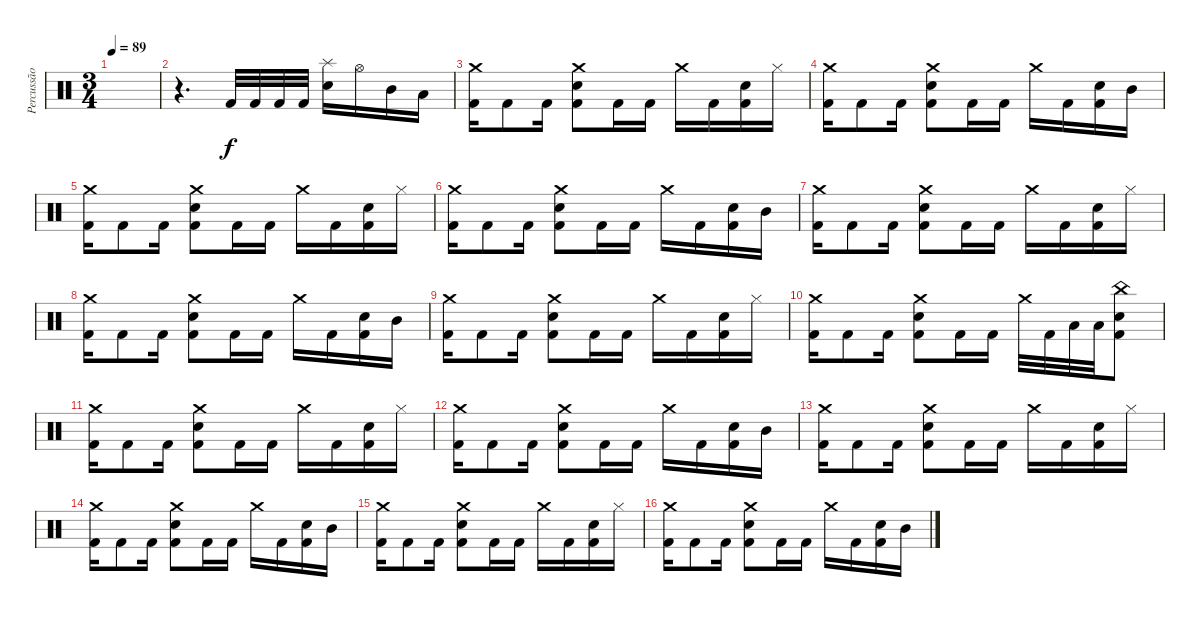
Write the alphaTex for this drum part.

\track ("Percussão" "Percussão") {instrument percussion}
\staff {score}
\articulation defaults
\ts (3 4)
\tempo 89
\clef neutral
\ks c
|
r.4{d} "Kick (hit) 2".32 "Kick (hit) 2".32 "Kick (hit) 2".32 "Kick (hit) 2".32 ("Splash (hit)" "Snare (hit) 2").16 "Hi-Hat (open)".16 "Mid Tom (hit)".16 "Low Tom (hit)".16 |
("Crash medium (hit)" "Kick (hit) 2").16 "Kick (hit) 2".8 "Kick (hit) 2".16 ("Crash medium (hit)" "Snare (hit) 2" "Kick (hit) 2").8 "Kick (hit) 2".16 "Kick (hit) 2".16 "Crash medium (hit)".16 "Kick (hit) 2".16 ("Snare (hit) 2" "Kick (hit) 2").16 "Hi-Hat (closed)".16 |
("Crash medium (hit)" "Kick (hit) 2").16 "Kick (hit) 2".8 "Kick (hit) 2".16 ("Crash medium (hit)" "Snare (hit) 2" "Kick (hit) 2").8 "Kick (hit) 2".16 "Kick (hit) 2".16 "Crash medium (hit)".16 "Kick (hit) 2".16 ("Snare (hit) 2" "Kick (hit) 2").16 "Mid Tom (hit)".16 |
("Crash medium (hit)" "Kick (hit) 2").16 "Kick (hit) 2".8 "Kick (hit) 2".16 ("Crash medium (hit)" "Snare (hit) 2" "Kick (hit) 2").8 "Kick (hit) 2".16 "Kick (hit) 2".16 "Crash medium (hit)".16 "Kick (hit) 2".16 ("Snare (hit) 2" "Kick (hit) 2").16 "Hi-Hat (closed)".16 |
("Crash medium (hit)" "Kick (hit) 2").16 "Kick (hit) 2".8 "Kick (hit) 2".16 ("Crash medium (hit)" "Snare (hit) 2" "Kick (hit) 2").8 "Kick (hit) 2".16 "Kick (hit) 2".16 "Crash medium (hit)".16 "Kick (hit) 2".16 ("Snare (hit) 2" "Kick (hit) 2").16 "Mid Tom (hit)".16 |
("Crash medium (hit)" "Kick (hit) 2").16 "Kick (hit) 2".8 "Kick (hit) 2".16 ("Crash medium (hit)" "Snare (hit) 2" "Kick (hit) 2").8 "Kick (hit) 2".16 "Kick (hit) 2".16 "Crash medium (hit)".16 "Kick (hit) 2".16 ("Snare (hit) 2" "Kick (hit) 2").16 "Hi-Hat (closed)".16 |
("Crash medium (hit)" "Kick (hit) 2").16 "Kick (hit) 2".8 "Kick (hit) 2".16 ("Crash medium (hit)" "Snare (hit) 2" "Kick (hit) 2").8 "Kick (hit) 2".16 "Kick (hit) 2".16 "Crash medium (hit)".16 "Kick (hit) 2".16 ("Snare (hit) 2" "Kick (hit) 2").16 "Mid Tom (hit)".16 |
("Crash medium (hit)" "Kick (hit) 2").16 "Kick (hit) 2".8 "Kick (hit) 2".16 ("Crash medium (hit)" "Snare (hit) 2" "Kick (hit) 2").8 "Kick (hit) 2".16 "Kick (hit) 2".16 "Crash medium (hit)".16 "Kick (hit) 2".16 ("Snare (hit) 2" "Kick (hit) 2").16 "Hi-Hat (closed)".16 |
("Crash medium (hit)" "Kick (hit) 2").16 "Kick (hit) 2".8 "Kick (hit) 2".16 ("Crash medium (hit)" "Snare (hit) 2" "Kick (hit) 2").8 "Kick (hit) 2".16 "Kick (hit) 2".16 "Crash medium (hit)".32 "Kick (hit) 2".32 "Low Tom (hit)".32 "Low Tom (hit)".32 ("China (hit)" "Snare (hit) 2" "Kick (hit) 2").8 |
("Crash medium (hit)" "Kick (hit) 2").16 "Kick (hit) 2".8 "Kick (hit) 2".16 ("Crash medium (hit)" "Snare (hit) 2" "Kick (hit) 2").8 "Kick (hit) 2".16 "Kick (hit) 2".16 "Crash medium (hit)".16 "Kick (hit) 2".16 ("Snare (hit) 2" "Kick (hit) 2").16 "Hi-Hat (closed)".16 |
("Crash medium (hit)" "Kick (hit) 2").16 "Kick (hit) 2".8 "Kick (hit) 2".16 ("Crash medium (hit)" "Snare (hit) 2" "Kick (hit) 2").8 "Kick (hit) 2".16 "Kick (hit) 2".16 "Crash medium (hit)".16 "Kick (hit) 2".16 ("Snare (hit) 2" "Kick (hit) 2").16 "Mid Tom (hit)".16 |
("Crash medium (hit)" "Kick (hit) 2").16 "Kick (hit) 2".8 "Kick (hit) 2".16 ("Crash medium (hit)" "Snare (hit) 2" "Kick (hit) 2").8 "Kick (hit) 2".16 "Kick (hit) 2".16 "Crash medium (hit)".16 "Kick (hit) 2".16 ("Snare (hit) 2" "Kick (hit) 2").16 "Hi-Hat (closed)".16 |
("Crash medium (hit)" "Kick (hit) 2").16 "Kick (hit) 2".8 "Kick (hit) 2".16 ("Crash medium (hit)" "Snare (hit) 2" "Kick (hit) 2").8 "Kick (hit) 2".16 "Kick (hit) 2".16 "Crash medium (hit)".16 "Kick (hit) 2".16 ("Snare (hit) 2" "Kick (hit) 2").16 "Mid Tom (hit)".16 |
("Crash medium (hit)" "Kick (hit) 2").16 "Kick (hit) 2".8 "Kick (hit) 2".16 ("Crash medium (hit)" "Snare (hit) 2" "Kick (hit) 2").8 "Kick (hit) 2".16 "Kick (hit) 2".16 "Crash medium (hit)".16 "Kick (hit) 2".16 ("Snare (hit) 2" "Kick (hit) 2").16 "Hi-Hat (closed)".16 |
("Crash medium (hit)" "Kick (hit) 2").16 "Kick (hit) 2".8 "Kick (hit) 2".16 ("Crash medium (hit)" "Snare (hit) 2" "Kick (hit) 2").8 "Kick (hit) 2".16 "Kick (hit) 2".16 "Crash medium (hit)".16 "Kick (hit) 2".16 ("Snare (hit) 2" "Kick (hit) 2").16 "Mid Tom (hit)".16
